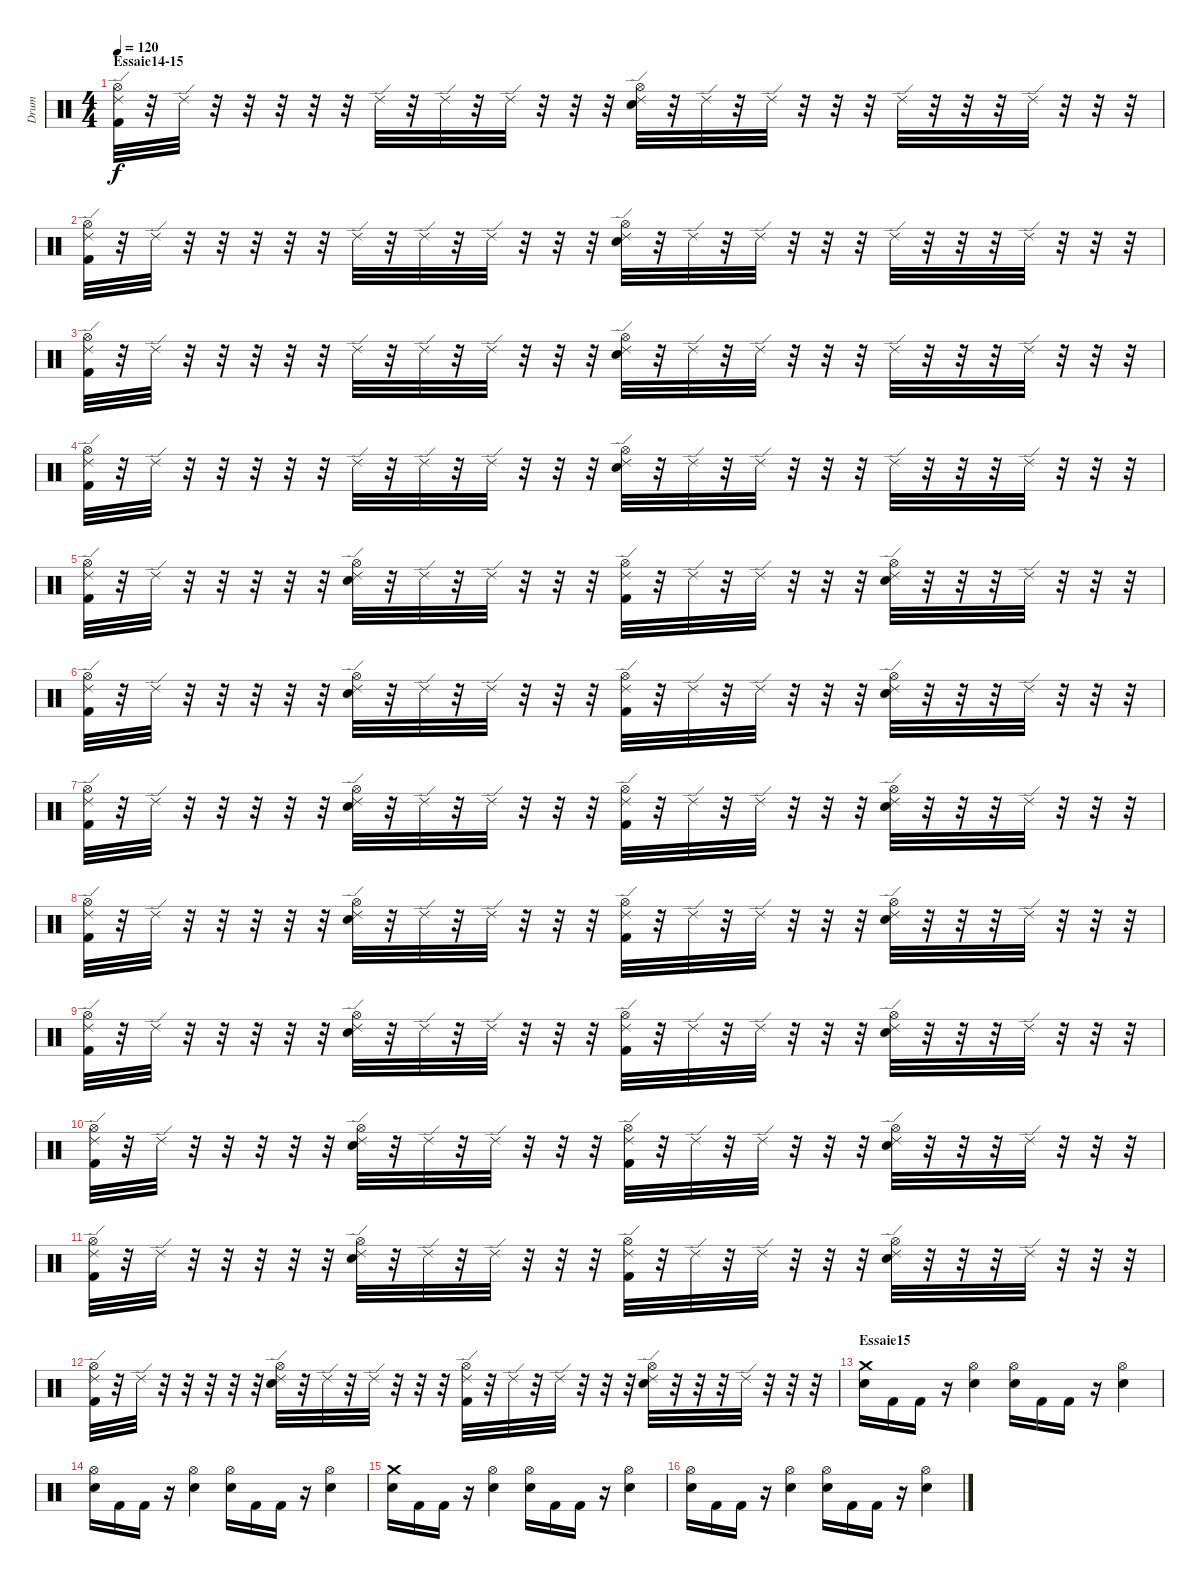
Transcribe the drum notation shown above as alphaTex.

\track ("Drum" "Drum") {instrument percussion}
\staff {score}
\articulation defaults
\ts (4 4)
\section ("" "Essaie14-15")
\tempo 120
\clef neutral
\ks c
("Hi-Hat (open)" "Ride (edge) 2" "Kick (hit) 2").32{dy f} r.32 "Ride (edge) 2".32 r.32 r.32 r.32 r.32 r.32 "Ride (edge) 2".32 r.32 "Ride (edge) 2".32 r.32 "Ride (edge) 2".32 r.32 r.32 r.32 ("Hi-Hat (open)" "Ride (edge) 2" "Snare (hit) 2").32 r.32 "Ride (edge) 2".32 r.32 "Ride (edge) 2".32 r.32 r.32 r.32 "Ride (edge) 2".32 r.32 r.32 r.32 "Ride (edge) 2".32 r.32 r.32 r.32 |
("Hi-Hat (open)" "Ride (edge) 2" "Kick (hit) 2").32 r.32 "Ride (edge) 2".32 r.32 r.32 r.32 r.32 r.32 "Ride (edge) 2".32 r.32 "Ride (edge) 2".32 r.32 "Ride (edge) 2".32 r.32 r.32 r.32 ("Hi-Hat (open)" "Ride (edge) 2" "Snare (hit) 2").32 r.32 "Ride (edge) 2".32 r.32 "Ride (edge) 2".32 r.32 r.32 r.32 "Ride (edge) 2".32 r.32 r.32 r.32 "Ride (edge) 2".32 r.32 r.32 r.32 |
("Hi-Hat (open)" "Ride (edge) 2" "Kick (hit) 2").32 r.32 "Ride (edge) 2".32 r.32 r.32 r.32 r.32 r.32 "Ride (edge) 2".32 r.32 "Ride (edge) 2".32 r.32 "Ride (edge) 2".32 r.32 r.32 r.32 ("Hi-Hat (open)" "Ride (edge) 2" "Snare (hit) 2").32 r.32 "Ride (edge) 2".32 r.32 "Ride (edge) 2".32 r.32 r.32 r.32 "Ride (edge) 2".32 r.32 r.32 r.32 "Ride (edge) 2".32 r.32 r.32 r.32 |
("Hi-Hat (open)" "Ride (edge) 2" "Kick (hit) 2").32 r.32 "Ride (edge) 2".32 r.32 r.32 r.32 r.32 r.32 "Ride (edge) 2".32 r.32 "Ride (edge) 2".32 r.32 "Ride (edge) 2".32 r.32 r.32 r.32 ("Hi-Hat (open)" "Ride (edge) 2" "Snare (hit) 2").32 r.32 "Ride (edge) 2".32 r.32 "Ride (edge) 2".32 r.32 r.32 r.32 "Ride (edge) 2".32 r.32 r.32 r.32 "Ride (edge) 2".32 r.32 r.32 r.32 |
("Hi-Hat (open)" "Ride (edge) 2" "Kick (hit) 2").32 r.32 "Ride (edge) 2".32 r.32 r.32 r.32 r.32 r.32 ("Hi-Hat (open)" "Snare (hit) 2" "Ride (edge) 2").32 r.32 "Ride (edge) 2".32 r.32 "Ride (edge) 2".32 r.32 r.32 r.32 ("Hi-Hat (open)" "Ride (edge) 2" "Kick (hit) 2").32 r.32 "Ride (edge) 2".32 r.32 "Ride (edge) 2".32 r.32 r.32 r.32 ("Hi-Hat (open)" "Snare (hit) 2" "Ride (edge) 2").32 r.32 r.32 r.32 "Ride (edge) 2".32 r.32 r.32 r.32 |
("Hi-Hat (open)" "Ride (edge) 2" "Kick (hit) 2").32 r.32 "Ride (edge) 2".32 r.32 r.32 r.32 r.32 r.32 ("Hi-Hat (open)" "Snare (hit) 2" "Ride (edge) 2").32 r.32 "Ride (edge) 2".32 r.32 "Ride (edge) 2".32 r.32 r.32 r.32 ("Hi-Hat (open)" "Ride (edge) 2" "Kick (hit) 2").32 r.32 "Ride (edge) 2".32 r.32 "Ride (edge) 2".32 r.32 r.32 r.32 ("Hi-Hat (open)" "Snare (hit) 2" "Ride (edge) 2").32 r.32 r.32 r.32 "Ride (edge) 2".32 r.32 r.32 r.32 |
("Hi-Hat (open)" "Ride (edge) 2" "Kick (hit) 2").32 r.32 "Ride (edge) 2".32 r.32 r.32 r.32 r.32 r.32 ("Hi-Hat (open)" "Snare (hit) 2" "Ride (edge) 2").32 r.32 "Ride (edge) 2".32 r.32 "Ride (edge) 2".32 r.32 r.32 r.32 ("Hi-Hat (open)" "Ride (edge) 2" "Kick (hit) 2").32 r.32 "Ride (edge) 2".32 r.32 "Ride (edge) 2".32 r.32 r.32 r.32 ("Hi-Hat (open)" "Snare (hit) 2" "Ride (edge) 2").32 r.32 r.32 r.32 "Ride (edge) 2".32 r.32 r.32 r.32 |
("Hi-Hat (open)" "Ride (edge) 2" "Kick (hit) 2").32 r.32 "Ride (edge) 2".32 r.32 r.32 r.32 r.32 r.32 ("Hi-Hat (open)" "Snare (hit) 2" "Ride (edge) 2").32 r.32 "Ride (edge) 2".32 r.32 "Ride (edge) 2".32 r.32 r.32 r.32 ("Hi-Hat (open)" "Ride (edge) 2" "Kick (hit) 2").32 r.32 "Ride (edge) 2".32 r.32 "Ride (edge) 2".32 r.32 r.32 r.32 ("Hi-Hat (open)" "Snare (hit) 2" "Ride (edge) 2").32 r.32 r.32 r.32 "Ride (edge) 2".32 r.32 r.32 r.32 |
("Hi-Hat (open)" "Ride (edge) 2" "Kick (hit) 2").32 r.32 "Ride (edge) 2".32 r.32 r.32 r.32 r.32 r.32 ("Hi-Hat (open)" "Snare (hit) 2" "Ride (edge) 2").32 r.32 "Ride (edge) 2".32 r.32 "Ride (edge) 2".32 r.32 r.32 r.32 ("Hi-Hat (open)" "Ride (edge) 2" "Kick (hit) 2").32 r.32 "Ride (edge) 2".32 r.32 "Ride (edge) 2".32 r.32 r.32 r.32 ("Hi-Hat (open)" "Snare (hit) 2" "Ride (edge) 2").32 r.32 r.32 r.32 "Ride (edge) 2".32 r.32 r.32 r.32 |
("Hi-Hat (open)" "Ride (edge) 2" "Kick (hit) 2").32 r.32 "Ride (edge) 2".32 r.32 r.32 r.32 r.32 r.32 ("Hi-Hat (open)" "Snare (hit) 2" "Ride (edge) 2").32 r.32 "Ride (edge) 2".32 r.32 "Ride (edge) 2".32 r.32 r.32 r.32 ("Hi-Hat (open)" "Ride (edge) 2" "Kick (hit) 2").32 r.32 "Ride (edge) 2".32 r.32 "Ride (edge) 2".32 r.32 r.32 r.32 ("Hi-Hat (open)" "Snare (hit) 2" "Ride (edge) 2").32 r.32 r.32 r.32 "Ride (edge) 2".32 r.32 r.32 r.32 |
("Hi-Hat (open)" "Ride (edge) 2" "Kick (hit) 2").32 r.32 "Ride (edge) 2".32 r.32 r.32 r.32 r.32 r.32 ("Hi-Hat (open)" "Snare (hit) 2" "Ride (edge) 2").32 r.32 "Ride (edge) 2".32 r.32 "Ride (edge) 2".32 r.32 r.32 r.32 ("Hi-Hat (open)" "Ride (edge) 2" "Kick (hit) 2").32 r.32 "Ride (edge) 2".32 r.32 "Ride (edge) 2".32 r.32 r.32 r.32 ("Hi-Hat (open)" "Snare (hit) 2" "Ride (edge) 2").32 r.32 r.32 r.32 "Ride (edge) 2".32 r.32 r.32 r.32 |
("Hi-Hat (open)" "Ride (edge) 2" "Kick (hit) 2").32 r.32 "Ride (edge) 2".32 r.32 r.32 r.32 r.32 r.32 ("Hi-Hat (open)" "Snare (hit) 2" "Ride (edge) 2").32 r.32 "Ride (edge) 2".32 r.32 "Ride (edge) 2".32 r.32 r.32 r.32 ("Hi-Hat (open)" "Ride (edge) 2" "Kick (hit) 2").32 r.32 "Ride (edge) 2".32 r.32 "Ride (edge) 2".32 r.32 r.32 r.32 ("Hi-Hat (open)" "Snare (hit) 2" "Ride (edge) 2").32 r.32 r.32 r.32 "Ride (edge) 2".32 r.32 r.32 r.32 |
\section ("" "Essaie15")
("Crash medium (hit)" "Snare (hit) 2").16 "Kick (hit) 2".16 "Kick (hit) 2".16 r.16 ("Hi-Hat (open)" "Snare (hit) 2").4 ("Hi-Hat (open)" "Snare (hit) 2").16 "Kick (hit) 2".16 "Kick (hit) 2".16 r.16 ("Hi-Hat (open)" "Snare (hit) 2").4 |
("Hi-Hat (open)" "Snare (hit) 2").16 "Kick (hit) 2".16 "Kick (hit) 2".16 r.16 ("Hi-Hat (open)" "Snare (hit) 2").4 ("Hi-Hat (open)" "Snare (hit) 2").16 "Kick (hit) 2".16 "Kick (hit) 2".16 r.16 ("Hi-Hat (open)" "Snare (hit) 2").4 |
("Crash medium (hit)" "Snare (hit) 2").16 "Kick (hit) 2".16 "Kick (hit) 2".16 r.16 ("Hi-Hat (open)" "Snare (hit) 2").4 ("Hi-Hat (open)" "Snare (hit) 2").16 "Kick (hit) 2".16 "Kick (hit) 2".16 r.16 ("Hi-Hat (open)" "Snare (hit) 2").4 |
("Hi-Hat (open)" "Snare (hit) 2").16 "Kick (hit) 2".16 "Kick (hit) 2".16 r.16 ("Hi-Hat (open)" "Snare (hit) 2").4 ("Hi-Hat (open)" "Snare (hit) 2").16 "Kick (hit) 2".16 "Kick (hit) 2".16 r.16 ("Hi-Hat (open)" "Snare (hit) 2").4
